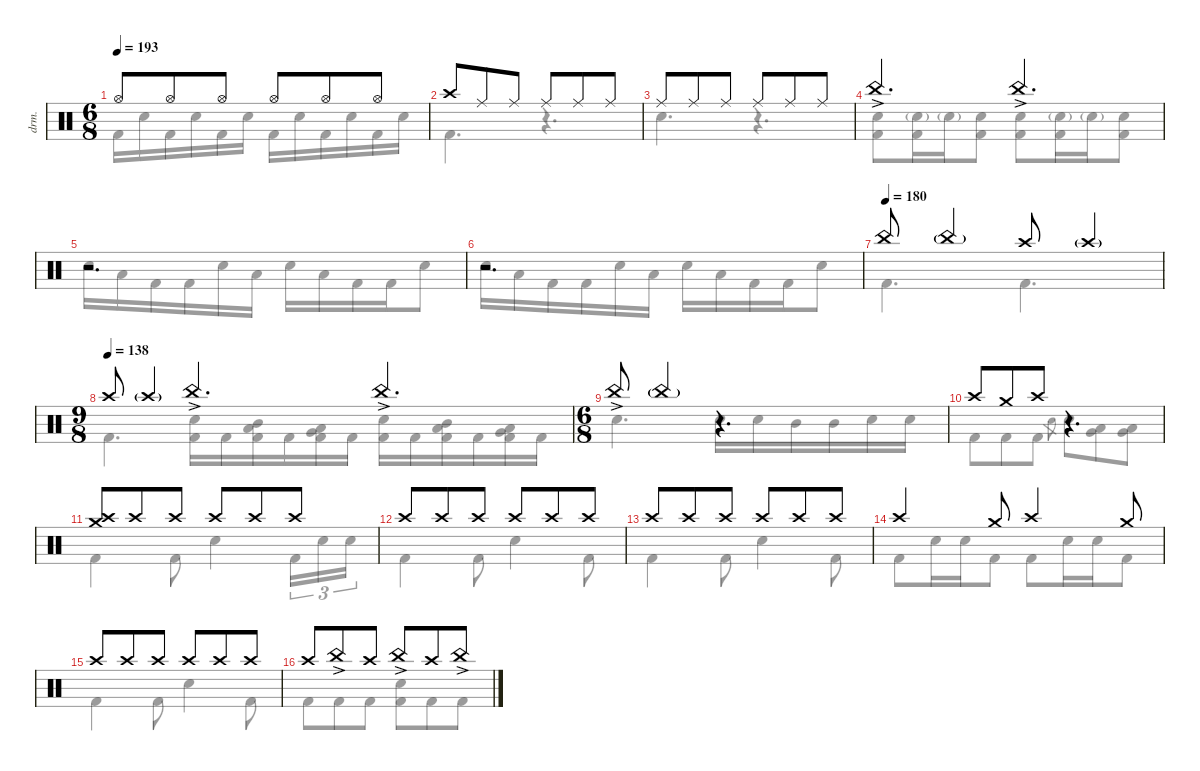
\defaultSystemsLayout 4
\hideDynamics
\bracketExtendMode nobrackets
\otherSystemsTrackNameOrientation horizontal
\track ("B. Richardson Drums" "drm.") {instrument percussion}
\staff {score}
\articulation defaults
\voice
\ts (6 8)
\tempo 193
\clef neutral
\ks c "Hi-Hat (open)".8{dy mf beam Up} "Hi-Hat (open)".8{beam Up} "Hi-Hat (open)".8{beam Up} "Hi-Hat (open)".8{beam Up} "Hi-Hat (open)".8{beam Up} "Hi-Hat (open)".8{beam Up}
|
"Crash high (hit)".8{beam Up} "Ride (middle)".8{beam Up} "Ride (middle)".8{beam Up} "Ride (middle)".8{beam Up} "Ride (middle)".8{beam Up} "Ride (middle)".8{beam Up} |
"Ride (middle)".8{beam Up} "Ride (middle)".8{beam Up} "Ride (middle)".8{beam Up} "Ride (middle)".8{beam Up} "Ride (middle)".8{beam Up} "Ride (middle)".8{beam Up} |
"China (hit)"{ac}.4{d dy f beam Up} "China (hit)"{ac}.4{d beam Up} |
r.2{d beam Up} |
r.2{d beam Up} |
\tempo (180)
"China (hit)".8{beam Up} "China (hit)"{g}.4{dy pp beam Up} "Crash high (hit)".8{dy mf beam Up} "Crash high (hit)"{g}.4{dy pp beam Up} |
\ts (9 8)
\beaming (8 3 3 3)
\tempo (138)
"Crash high (hit)".8{dy mf beam Up} "Crash high (hit)"{g}.4{dy pp beam Up} "China (hit)"{ac}.4{d dy f beam Up} "China (hit)"{ac}.4{d beam Up} |
\ts (6 8)
\beaming (8 3 3)
"China (hit)"{ac}.8{beam Up} "China (hit)"{g}.4{dy pp beam Up} r.4{d beam Up} |
"Crash high (hit)".8{dy f beam Up} "Crash medium (hit)".8{beam Up} "Crash high (hit)".8{beam Up} r.4{d beam Up} |
("Crash high (hit)" "Crash medium (hit)").8{beam Up} "Crash high (hit)".8{dy mf beam Up} "Crash high (hit)".8{beam Up} "Crash high (hit)".8{beam Up} "Crash high (hit)".8{beam Up} "Crash high (hit)".8{beam Up} |
"Crash high (hit)".8{beam Up} "Crash high (hit)".8{beam Up} "Crash high (hit)".8{beam Up} "Crash high (hit)".8{beam Up} "Crash high (hit)".8{beam Up} "Crash high (hit)".8{beam Up} |
"Crash high (hit)".8{beam Up} "Crash high (hit)".8{beam Up} "Crash high (hit)".8{beam Up} "Crash high (hit)".8{beam Up} "Crash high (hit)".8{beam Up} "Crash high (hit)".8{beam Up} |
"Crash high (hit)".4{beam Up} "Crash medium (hit)".8{beam Up} "Crash high (hit)".4{beam Up} "Crash medium (hit)".8{beam Up} |
"Crash high (hit)".8{beam Up} "Crash high (hit)".8{beam Up} "Crash high (hit)".8{beam Up} "Crash high (hit)".8{beam Up} "Crash high (hit)".8{beam Up} "Crash high (hit)".8{beam Up} |
"Crash high (hit)".8{beam Up} "China (hit)"{ac}.8{dy f beam Up} "Crash high (hit)".8{dy mf beam Up} "China (hit)"{ac}.8{dy f beam Up} "Crash high (hit)".8{dy mf beam Up} "China (hit)"{ac}.8{dy f beam Up}
\voice
\clef neutral
\ottava regular
\simile none
\ks c "Kick (hit) 2".16{dy fff beam Down} "Snare (hit) 2".16{dy f beam Down} "Kick (hit) 2".16{dy fff beam Down} "Snare (hit) 2".16{dy f beam Down} "Kick (hit) 2".16{dy fff beam Down} "Snare (hit) 2".16{dy f beam Down} "Kick (hit) 2".16{dy fff beam Down} "Snare (hit) 2".16{dy f beam Down} "Kick (hit) 2".16{dy fff beam Down} "Snare (hit) 2".16{dy f beam Down} "Kick (hit) 2".16{dy fff beam Down} "Snare (hit) 2".16{dy f beam Down}
|
"Kick (hit) 2".4{d dy fff beam Down} r.4{d beam Down} |
"Snare (hit) 2".4{d beam Down} r.4{d beam Down} |
("Snare (hit) 2" "Kick (hit) 2").8{dy f beam Down} ("Snare (hit) 2"{g} "Kick (hit) 2").16{dy fff beam Down} "Snare (hit) 2"{g}.16{dy f beam Down} ("Snare (hit) 2" "Kick (hit) 2").8{beam Down} ("Snare (hit) 2" "Kick (hit) 2").8{beam Down} ("Snare (hit) 2"{g} "Kick (hit) 2").16{dy fff beam Down} "Snare (hit) 2"{g}.16{dy f beam Down} ("Snare (hit) 2" "Kick (hit) 2").8{beam Down} |
"Snare (hit) 2".16{dy fff beam Down} "Low Tom (hit)".16{beam Down} "Kick (hit) 2".16{beam Down} "Kick (hit) 2".16{beam Down} "Snare (hit) 2".16{beam Down} "Low Tom (hit)".16{beam Down} "Snare (hit) 2".16{beam Down} "Low Tom (hit)".16{beam Down} "Kick (hit) 2".16{beam Down} "Kick (hit) 2".16{beam Down} "Snare (hit) 2".8{beam Down} |
"Snare (hit) 2".16{beam Down} "Low Tom (hit)".16{beam Down} "Kick (hit) 2".16{beam Down} "Kick (hit) 2".16{beam Down} "Snare (hit) 2".16{beam Down} "Low Tom (hit)".16{beam Down} "Snare (hit) 2".16{beam Down} "Low Tom (hit)".16{beam Down} "Kick (hit) 2".16{beam Down} "Kick (hit) 2".16{beam Down} "Snare (hit) 2".8{beam Down} |
"Kick (hit) 2".4{d beam Down} "Kick (hit) 2".4{d beam Down} |
"Kick (hit) 2".4{d beam Down} ("Snare (hit) 2" "Kick (hit) 2").16{beam Down} "Kick (hit) 2".16{beam Down} ("Mid Tom (hit)" "Low Tom (hit)" "Kick (hit) 2").16{beam Down} "Kick (hit) 2".16{beam Down} ("Low Tom (hit)" "Very Low Tom (hit)" "Kick (hit) 2").16{beam Down} "Kick (hit) 2".16{beam Down} ("Snare (hit) 2" "Kick (hit) 2").16{beam Down} "Kick (hit) 2".16{beam Down} ("Mid Tom (hit)" "Low Tom (hit)" "Kick (hit) 2").16{beam Down} "Kick (hit) 2".16{beam Down} ("Low Tom (hit)" "Very Low Tom (hit)" "Kick (hit) 2").16{beam Down} "Kick (hit) 2".16{beam Down} |
"Snare (hit) 2".4{d beam Down} "Snare (hit) 2".16{beam Down} "Snare (hit) 2".16{beam Down} "Mid Tom (hit)".16{beam Down} "Mid Tom (hit)".16{beam Down} "Snare (hit) 2".16{beam Down} "Snare (hit) 2".16{beam Down} |
"Kick (hit) 2".8{beam Down} "Kick (hit) 2".8{beam Down} "Kick (hit) 2".8{beam Down} "Electric Snare (hit)".8{gr dy ff beam Down} "Snare (hit) 2".8{dy fff beam Down} ("Low Tom (hit)" "Very Low Tom (hit)").8{beam Down} ("Low Tom (hit)" "Very Low Tom (hit)").8{beam Down} |
"Kick (hit) 2".4{beam Down} "Kick (hit) 2".8{beam Down} "Snare (hit) 2".4{beam Down} "Kick (hit) 2".16{tu (3 2) beam Down} "Snare (hit) 2".16{tu (3 2) dy f beam Down} "Snare (hit) 2".16{tu (3 2) beam Down} |
"Kick (hit) 2".4{dy fff beam Down} "Kick (hit) 2".8{beam Down} "Snare (hit) 2".4{beam Down} "Kick (hit) 2".8{beam Down} |
"Kick (hit) 2".4{beam Down} "Kick (hit) 2".8{beam Down} "Snare (hit) 2".4{beam Down} "Kick (hit) 2".8{beam Down} |
"Kick (hit) 2".8{beam Down} "Snare (hit) 2".16{beam Down} "Snare (hit) 2".16{beam Down} "Kick (hit) 2".8{beam Down} "Kick (hit) 2".8{beam Down} "Snare (hit) 2".16{beam Down} "Snare (hit) 2".16{beam Down} "Kick (hit) 2".8{beam Down} |
"Kick (hit) 2".4{beam Down} "Kick (hit) 2".8{beam Down} "Snare (hit) 2".4{beam Down} "Kick (hit) 2".8{beam Down} |
"Kick (hit) 2".8{beam Down} "Kick (hit) 2".8{beam Down} "Kick (hit) 2".8{beam Down} ("Snare (hit) 2" "Kick (hit) 2").8{beam Down} "Kick (hit) 2".8{beam Down} "Kick (hit) 2".8{beam Down}
